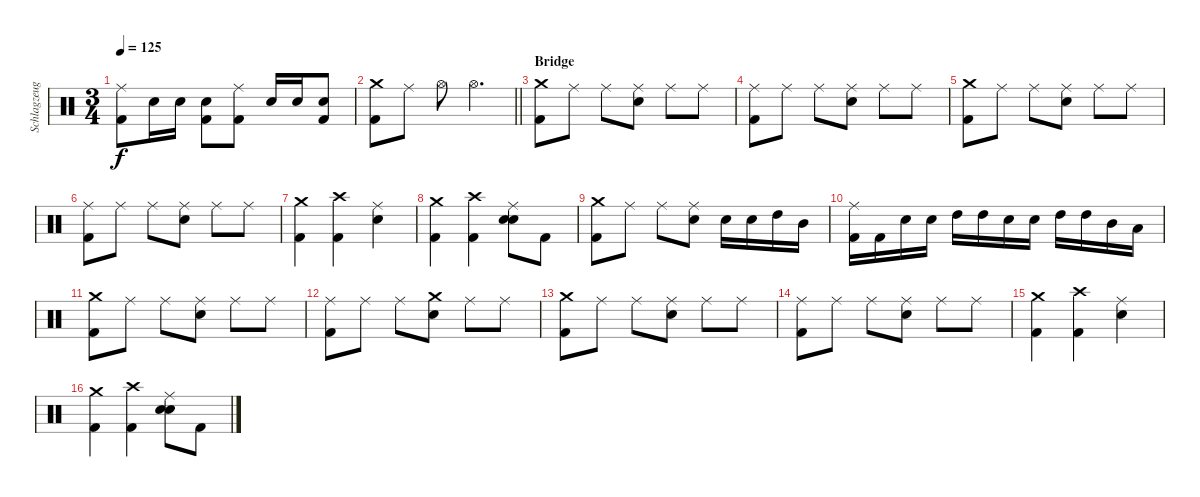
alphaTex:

\track ("Schlagzeug" "Schlagzeug") {instrument percussion}
\staff {score}
\articulation defaults
\ts (3 4)
\tempo 125
\clef neutral
\ks c
("Ride (middle)" "Kick (hit) 2").8{dy f} "Snare (hit) 2".16 "Snare (hit) 2".16 ("Snare (hit) 2" "Kick (hit) 2").8 ("Ride (middle)" "Kick (hit) 2").8 "Snare (hit) 2".16 "Snare (hit) 2".16 ("Snare (hit) 2" "Kick (hit) 2").8 |
\barLineRight lightlight
("Crash medium (hit)" "Kick (hit) 2").8 "Ride (middle)".8 "Hi-Hat (open)".8 "Hi-Hat (open)".4{d} |
\section ("" "Bridge")
("Crash medium (hit)" "Kick (hit) 2").8 "Ride (middle)".8 "Ride (middle)".8 ("Ride (middle)" "Snare (hit) 2").8 "Ride (middle)".8 "Ride (middle)".8 |
("Ride (middle)" "Kick (hit) 2").8 "Ride (middle)".8 "Ride (middle)".8 ("Ride (middle)" "Snare (hit) 2").8 "Ride (middle)".8 "Ride (middle)".8 |
("Crash medium (hit)" "Kick (hit) 2").8 "Ride (middle)".8 "Ride (middle)".8 ("Ride (middle)" "Snare (hit) 2").8 "Ride (middle)".8 "Ride (middle)".8 |
("Ride (middle)" "Kick (hit) 2").8 "Ride (middle)".8 "Ride (middle)".8 ("Ride (middle)" "Snare (hit) 2").8 "Ride (middle)".8 "Ride (middle)".8 |
("Crash medium (hit)" "Kick (hit) 2").4 ("Crash high (hit)" "Kick (hit) 2").4 ("Ride (middle)" "Snare (hit) 2").4 |
("Crash medium (hit)" "Kick (hit) 2").4 ("Crash high (hit)" "Kick (hit) 2").4 ("Ride (middle)" "Snare (hit) 2" "Snare (hit) 2").8{bd 480} "Kick (hit) 2".8 |
("Crash medium (hit)" "Kick (hit) 2").8 "Ride (middle)".8 "Ride (middle)".8 ("Ride (middle)" "Snare (hit) 2").8 "Snare (hit) 2".16 "Snare (hit) 2".16 "High Tom (hit)".16 "Mid Tom (hit)".16 |
("Ride (middle)" "Kick (hit) 2").16 "Kick (hit) 2".16 "Snare (hit) 2".16 "Snare (hit) 2".16 "High Tom (hit)".16 "High Tom (hit)".16 "Snare (hit) 2".16 "Snare (hit) 2".16 "High Tom (hit)".16 "High Tom (hit)".16 "Mid Tom (hit)".16 "Low Tom (hit)".16 |
("Crash medium (hit)" "Kick (hit) 2").8 "Ride (middle)".8 "Ride (middle)".8 ("Ride (middle)" "Snare (hit) 2").8 "Ride (middle)".8 "Ride (middle)".8 |
("Ride (middle)" "Kick (hit) 2").8 "Ride (middle)".8 "Ride (middle)".8 ("Crash medium (hit)" "Snare (hit) 2").8 "Ride (middle)".8 "Ride (middle)".8 |
("Crash medium (hit)" "Kick (hit) 2").8 "Ride (middle)".8 "Ride (middle)".8 ("Ride (middle)" "Snare (hit) 2").8 "Ride (middle)".8 "Ride (middle)".8 |
("Ride (middle)" "Kick (hit) 2").8 "Ride (middle)".8 "Ride (middle)".8 ("Ride (middle)" "Snare (hit) 2").8 "Ride (middle)".8 "Ride (middle)".8 |
("Crash medium (hit)" "Kick (hit) 2").4 ("Crash high (hit)" "Kick (hit) 2").4 ("Ride (middle)" "Snare (hit) 2").4 |
("Crash medium (hit)" "Kick (hit) 2").4 ("Crash high (hit)" "Kick (hit) 2").4 ("Ride (middle)" "Snare (hit) 2" "Snare (hit) 2").8{bd 480} "Kick (hit) 2".8
